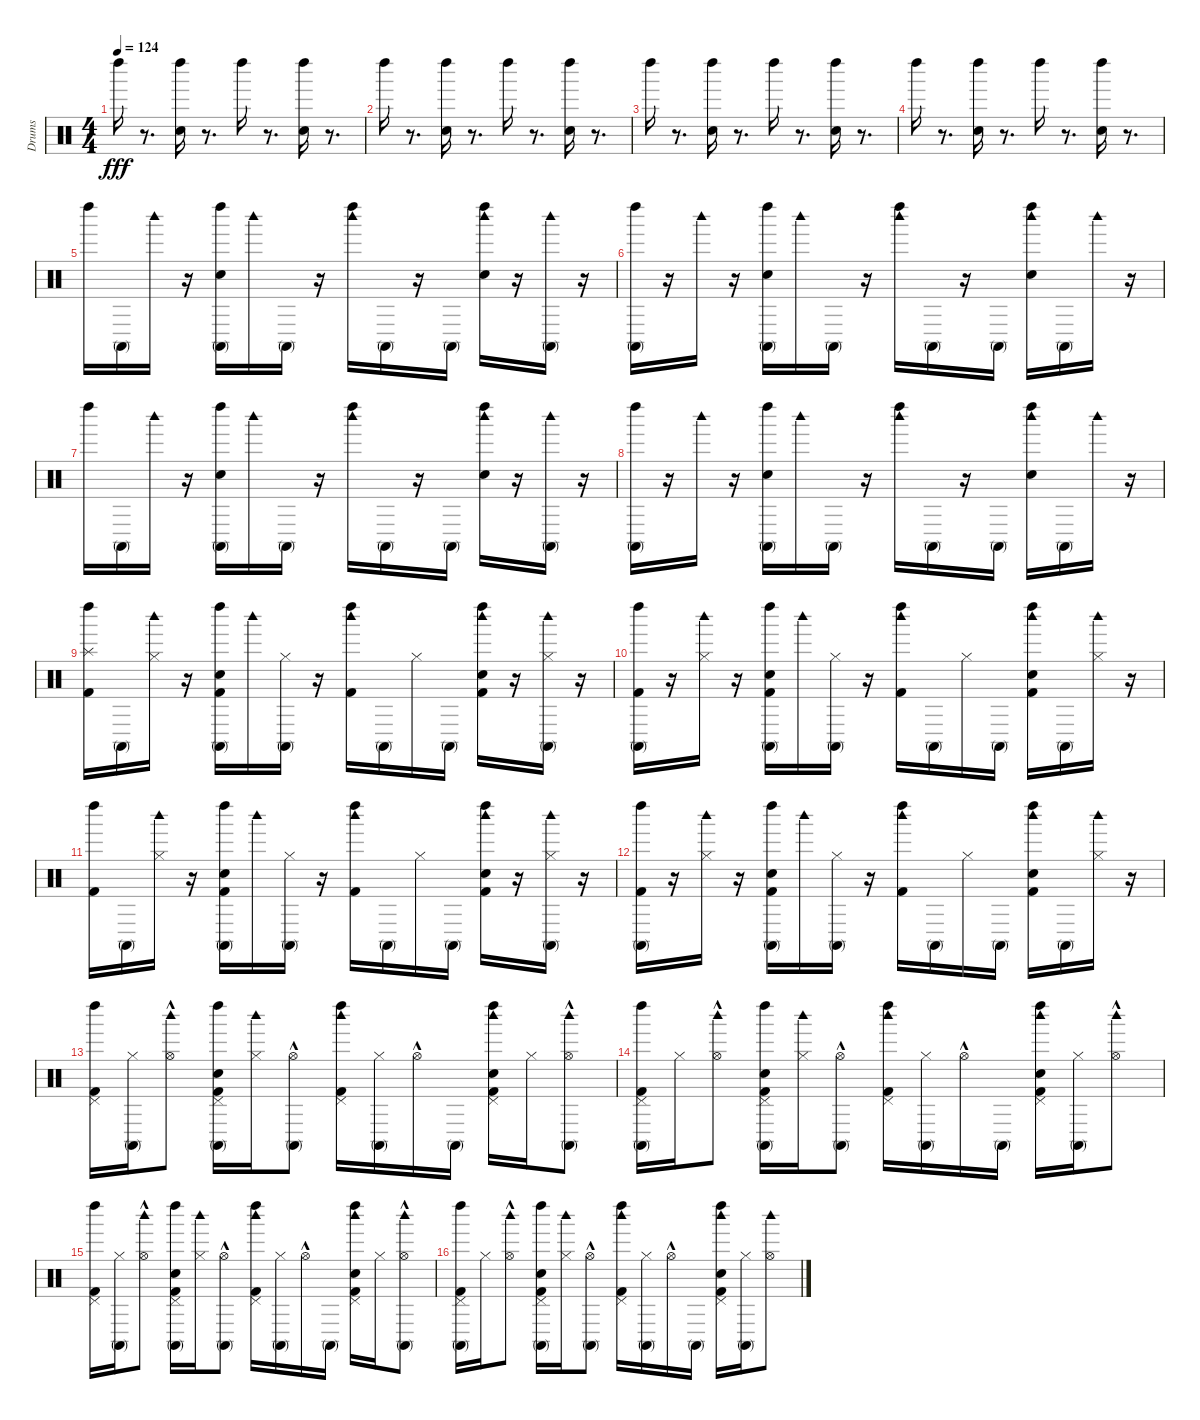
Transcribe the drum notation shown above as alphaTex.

\track ("Drums" "Drums") {instrument percussion}
\staff {score}
\articulation defaults
\ts (4 4)
\tempo 124
\clef neutral
\ks c "Left Maraca (hit)".16{dy fff}
r.8{d} ("Left Maraca (hit)" "Hand Clap (hit)").16 r.8{d} "Left Maraca (hit)".16 r.8{d} ("Left Maraca (hit)" "Hand Clap (hit)").16 r.8{d} |
"Left Maraca (hit)".16 r.8{d} ("Left Maraca (hit)" "Hand Clap (hit)").16 r.8{d} "Left Maraca (hit)".16 r.8{d} ("Left Maraca (hit)" "Hand Clap (hit)").16 r.8{d} |
"Left Maraca (hit)".16 r.8{d} ("Left Maraca (hit)" "Hand Clap (hit)").16 r.8{d} "Left Maraca (hit)".16 r.8{d} ("Left Maraca (hit)" "Hand Clap (hit)").16 r.8{d} |
"Left Maraca (hit)".16 r.8{d} ("Left Maraca (hit)" "Hand Clap (hit)").16 r.8{d} "Left Maraca (hit)".16 r.8{d} ("Left Maraca (hit)" "Hand Clap (hit)").16 r.8{d} |
"Left Maraca (hit)".16 "Conga high (mute)".16 "Woodblock high (hit)".16 r.16 ("Conga high (mute)" "Left Maraca (hit)" "Hand Clap (hit)").16 "Woodblock high (hit)".16 "Conga high (mute)".16 r.16 ("Woodblock high (hit)" "Left Maraca (hit)").16 "Conga high (mute)".16 r.16 "Conga high (mute)".16 ("Woodblock high (hit)" "Left Maraca (hit)" "Hand Clap (hit)").16 r.16 ("Conga high (mute)" "Woodblock high (hit)").16 r.16 |
("Conga high (mute)" "Left Maraca (hit)").16 r.16 "Woodblock high (hit)".16 r.16 ("Conga high (mute)" "Left Maraca (hit)" "Hand Clap (hit)").16 "Woodblock high (hit)".16 "Conga high (mute)".16 r.16 ("Woodblock high (hit)" "Left Maraca (hit)").16 "Conga high (mute)".16 r.16 "Conga high (mute)".16 ("Woodblock high (hit)" "Left Maraca (hit)" "Hand Clap (hit)").16 "Conga high (mute)".16 "Woodblock high (hit)".16 r.16 |
"Left Maraca (hit)".16 "Conga high (mute)".16 "Woodblock high (hit)".16 r.16 ("Conga high (mute)" "Left Maraca (hit)" "Hand Clap (hit)").16 "Woodblock high (hit)".16 "Conga high (mute)".16 r.16 ("Woodblock high (hit)" "Left Maraca (hit)").16 "Conga high (mute)".16 r.16 "Conga high (mute)".16 ("Woodblock high (hit)" "Left Maraca (hit)" "Hand Clap (hit)").16 r.16 ("Conga high (mute)" "Woodblock high (hit)").16 r.16 |
("Conga high (mute)" "Left Maraca (hit)").16 r.16 "Woodblock high (hit)".16 r.16 ("Conga high (mute)" "Left Maraca (hit)" "Hand Clap (hit)").16 "Woodblock high (hit)".16 "Conga high (mute)".16 r.16 ("Woodblock high (hit)" "Left Maraca (hit)").16 "Conga high (mute)".16 r.16 "Conga high (mute)".16 ("Woodblock high (hit)" "Left Maraca (hit)" "Hand Clap (hit)").16 "Conga high (mute)".16 "Woodblock high (hit)".16 r.16 |
("Splash (hit)" "Kick (hit) 2" "Left Maraca (hit)").16 "Conga high (mute)".16 ("Hi-Hat (closed)" "Woodblock high (hit)").16 r.16 ("Kick (hit) 2" "Conga high (mute)" "Left Maraca (hit)" "Hand Clap (hit)").16 "Woodblock high (hit)".16 ("Hi-Hat (closed)" "Conga high (mute)").16 r.16 ("Kick (hit) 2" "Woodblock high (hit)" "Left Maraca (hit)").16 "Conga high (mute)".16 "Hi-Hat (closed)".16 "Conga high (mute)".16 ("Kick (hit) 2" "Woodblock high (hit)" "Left Maraca (hit)" "Hand Clap (hit)").16 r.16 ("Hi-Hat (closed)" "Conga high (mute)" "Woodblock high (hit)").16 r.16 |
("Kick (hit) 2" "Conga high (mute)" "Left Maraca (hit)").16 r.16 ("Hi-Hat (closed)" "Woodblock high (hit)").16 r.16 ("Kick (hit) 2" "Conga high (mute)" "Left Maraca (hit)" "Hand Clap (hit)").16 "Woodblock high (hit)".16 ("Hi-Hat (closed)" "Conga high (mute)").16 r.16 ("Kick (hit) 2" "Woodblock high (hit)" "Left Maraca (hit)").16 "Conga high (mute)".16 "Hi-Hat (closed)".16 "Conga high (mute)".16 ("Kick (hit) 2" "Woodblock high (hit)" "Left Maraca (hit)" "Hand Clap (hit)").16 "Conga high (mute)".16 ("Hi-Hat (closed)" "Woodblock high (hit)").16 r.16 |
("Kick (hit) 2" "Left Maraca (hit)").16 "Conga high (mute)".16 ("Hi-Hat (closed)" "Woodblock high (hit)").16 r.16 ("Kick (hit) 2" "Conga high (mute)" "Left Maraca (hit)" "Hand Clap (hit)").16 "Woodblock high (hit)".16 ("Hi-Hat (closed)" "Conga high (mute)").16 r.16 ("Kick (hit) 2" "Woodblock high (hit)" "Left Maraca (hit)").16 "Conga high (mute)".16 "Hi-Hat (closed)".16 "Conga high (mute)".16 ("Kick (hit) 2" "Woodblock high (hit)" "Left Maraca (hit)" "Hand Clap (hit)").16 r.16 ("Hi-Hat (closed)" "Conga high (mute)" "Woodblock high (hit)").16 r.16 |
("Kick (hit) 2" "Conga high (mute)" "Left Maraca (hit)").16 r.16 ("Hi-Hat (closed)" "Woodblock high (hit)").16 r.16 ("Kick (hit) 2" "Conga high (mute)" "Left Maraca (hit)" "Hand Clap (hit)").16 "Woodblock high (hit)".16 ("Hi-Hat (closed)" "Conga high (mute)").16 r.16 ("Kick (hit) 2" "Woodblock high (hit)" "Left Maraca (hit)").16 "Conga high (mute)".16 "Hi-Hat (closed)".16 "Conga high (mute)".16 ("Kick (hit) 2" "Woodblock high (hit)" "Left Maraca (hit)" "Hand Clap (hit)").16 "Conga high (mute)".16 ("Hi-Hat (closed)" "Woodblock high (hit)").16 r.16 |
("Pedal Hi-Hat (hit)" "Kick (hit) 2" "Left Maraca (hit)").16 ("Hi-Hat (closed)" "Conga high (mute)").16 ("Hi-Hat (open)"{hac} "Woodblock high (hit)").8 ("Pedal Hi-Hat (hit)" "Kick (hit) 2" "Conga high (mute)" "Left Maraca (hit)" "Hand Clap (hit)").16 ("Hi-Hat (closed)" "Woodblock high (hit)").16 ("Hi-Hat (open)"{hac} "Conga high (mute)").8 ("Pedal Hi-Hat (hit)" "Kick (hit) 2" "Woodblock high (hit)" "Left Maraca (hit)").16 ("Hi-Hat (closed)" "Conga high (mute)").16 "Hi-Hat (open)"{hac}.16 "Conga high (mute)".16 ("Pedal Hi-Hat (hit)" "Kick (hit) 2" "Woodblock high (hit)" "Left Maraca (hit)" "Hand Clap (hit)").16 "Hi-Hat (closed)".16 ("Hi-Hat (open)"{hac} "Conga high (mute)" "Woodblock high (hit)").8 |
("Pedal Hi-Hat (hit)" "Kick (hit) 2" "Conga high (mute)" "Left Maraca (hit)").16 "Hi-Hat (closed)".16 ("Hi-Hat (open)"{hac} "Woodblock high (hit)").8 ("Pedal Hi-Hat (hit)" "Kick (hit) 2" "Conga high (mute)" "Left Maraca (hit)" "Hand Clap (hit)").16 ("Hi-Hat (closed)" "Woodblock high (hit)").16 ("Hi-Hat (open)"{hac} "Conga high (mute)").8 ("Pedal Hi-Hat (hit)" "Kick (hit) 2" "Woodblock high (hit)" "Left Maraca (hit)").16 ("Hi-Hat (closed)" "Conga high (mute)").16 "Hi-Hat (open)"{hac}.16 "Conga high (mute)".16 ("Pedal Hi-Hat (hit)" "Kick (hit) 2" "Woodblock high (hit)" "Left Maraca (hit)" "Hand Clap (hit)").16 ("Hi-Hat (closed)" "Conga high (mute)").16 ("Hi-Hat (open)"{hac} "Woodblock high (hit)").8 |
("Pedal Hi-Hat (hit)" "Kick (hit) 2" "Left Maraca (hit)").16 ("Hi-Hat (closed)" "Conga high (mute)").16 ("Hi-Hat (open)"{hac} "Woodblock high (hit)").8 ("Pedal Hi-Hat (hit)" "Kick (hit) 2" "Conga high (mute)" "Left Maraca (hit)" "Hand Clap (hit)").16 ("Hi-Hat (closed)" "Woodblock high (hit)").16 ("Hi-Hat (open)"{hac} "Conga high (mute)").8 ("Pedal Hi-Hat (hit)" "Kick (hit) 2" "Woodblock high (hit)" "Left Maraca (hit)").16 ("Hi-Hat (closed)" "Conga high (mute)").16 "Hi-Hat (open)"{hac}.16 "Conga high (mute)".16 ("Pedal Hi-Hat (hit)" "Kick (hit) 2" "Woodblock high (hit)" "Left Maraca (hit)" "Hand Clap (hit)").16 "Hi-Hat (closed)".16 ("Hi-Hat (open)"{hac} "Conga high (mute)" "Woodblock high (hit)").8 |
("Pedal Hi-Hat (hit)" "Kick (hit) 2" "Conga high (mute)" "Left Maraca (hit)").16 "Hi-Hat (closed)".16 ("Hi-Hat (open)"{hac} "Woodblock high (hit)").8 ("Pedal Hi-Hat (hit)" "Kick (hit) 2" "Conga high (mute)" "Left Maraca (hit)" "Hand Clap (hit)").16 ("Hi-Hat (closed)" "Woodblock high (hit)").16 ("Hi-Hat (open)"{hac} "Conga high (mute)").8 ("Pedal Hi-Hat (hit)" "Kick (hit) 2" "Woodblock high (hit)" "Left Maraca (hit)").16 ("Hi-Hat (closed)" "Conga high (mute)").16 "Hi-Hat (open)"{hac}.16 "Conga high (mute)".16 ("Pedal Hi-Hat (hit)" "Kick (hit) 2" "Woodblock high (hit)" "Left Maraca (hit)" "Hand Clap (hit)").16 ("Hi-Hat (closed)" "Conga high (mute)").16 ("Hi-Hat (open)" "Woodblock high (hit)").8
